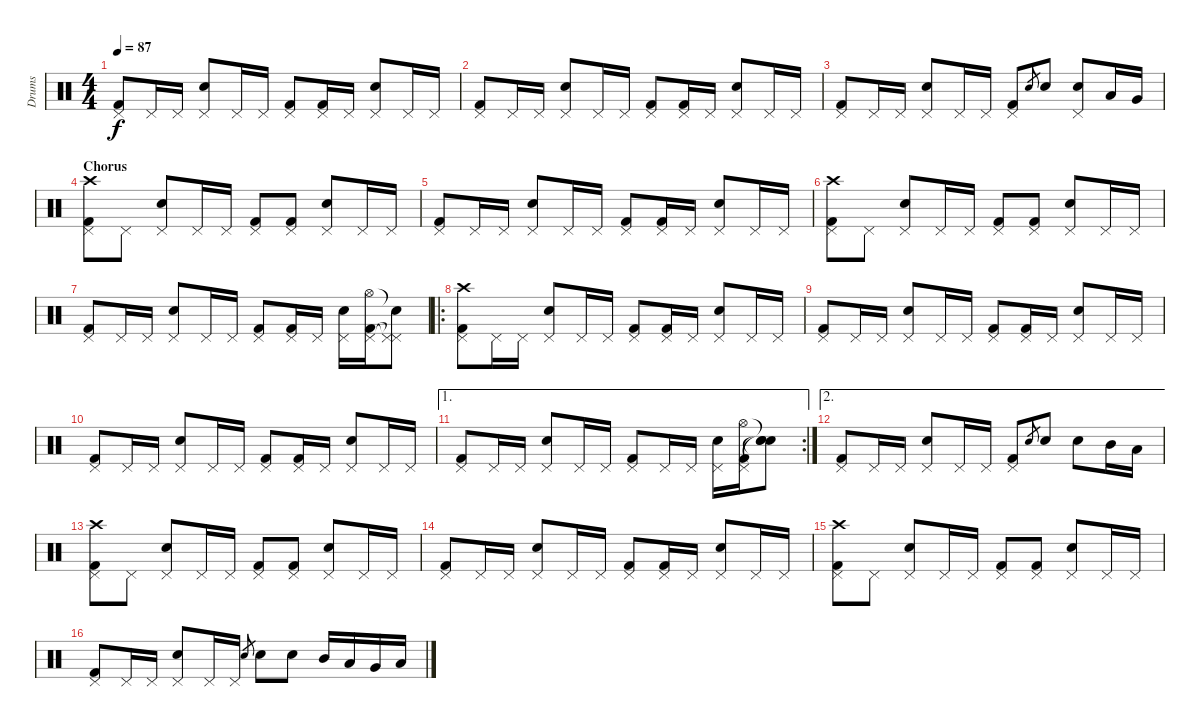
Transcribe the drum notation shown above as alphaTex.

\track ("Drums" "Drums") {instrument percussion}
\staff {score}
\articulation defaults
\ts (4 4)
\tempo 87
\clef neutral
\ks c
("Kick (hit) 2" "Pedal Hi-Hat (hit)").8{dy f} "Pedal Hi-Hat (hit)".16 "Pedal Hi-Hat (hit)".16 ("Snare (hit) 2" "Pedal Hi-Hat (hit)").8 "Pedal Hi-Hat (hit)".16 "Pedal Hi-Hat (hit)".16 ("Kick (hit) 2" "Pedal Hi-Hat (hit)").8 ("Kick (hit) 2" "Pedal Hi-Hat (hit)").16 "Pedal Hi-Hat (hit)".16 ("Snare (hit) 2" "Pedal Hi-Hat (hit)").8 "Pedal Hi-Hat (hit)".16 "Pedal Hi-Hat (hit)".16 |
("Kick (hit) 2" "Pedal Hi-Hat (hit)").8 "Pedal Hi-Hat (hit)".16 "Pedal Hi-Hat (hit)".16 ("Snare (hit) 2" "Pedal Hi-Hat (hit)").8 "Pedal Hi-Hat (hit)".16 "Pedal Hi-Hat (hit)".16 ("Kick (hit) 2" "Pedal Hi-Hat (hit)").8 ("Kick (hit) 2" "Pedal Hi-Hat (hit)").16 "Pedal Hi-Hat (hit)".16 ("Snare (hit) 2" "Pedal Hi-Hat (hit)").8 "Pedal Hi-Hat (hit)".16 "Pedal Hi-Hat (hit)".16 |
("Kick (hit) 2" "Pedal Hi-Hat (hit)").8 "Pedal Hi-Hat (hit)".16 "Pedal Hi-Hat (hit)".16 ("Snare (hit) 2" "Pedal Hi-Hat (hit)").8 "Pedal Hi-Hat (hit)".16 "Pedal Hi-Hat (hit)".16 ("Kick (hit) 2" "Pedal Hi-Hat (hit)").8 "Snare (hit) 2".8{gr} "Snare (hit) 2".8 ("Snare (hit) 2" "Pedal Hi-Hat (hit)").8 "Low Tom (hit)".16 "Very Low Tom (hit)".16 |
\section ("" "Chorus")
("Kick (hit) 2" "Pedal Hi-Hat (hit)" "Crash high (hit)").8 "Pedal Hi-Hat (hit)".8 ("Snare (hit) 2" "Pedal Hi-Hat (hit)").8 "Pedal Hi-Hat (hit)".16 "Pedal Hi-Hat (hit)".16 ("Kick (hit) 2" "Pedal Hi-Hat (hit)").8 ("Kick (hit) 2" "Pedal Hi-Hat (hit)").8 ("Snare (hit) 2" "Pedal Hi-Hat (hit)").8 "Pedal Hi-Hat (hit)".16 "Pedal Hi-Hat (hit)".16 |
("Kick (hit) 2" "Pedal Hi-Hat (hit)").8 "Pedal Hi-Hat (hit)".16 "Pedal Hi-Hat (hit)".16 ("Snare (hit) 2" "Pedal Hi-Hat (hit)").8 "Pedal Hi-Hat (hit)".16 "Pedal Hi-Hat (hit)".16 ("Kick (hit) 2" "Pedal Hi-Hat (hit)").8 ("Kick (hit) 2" "Pedal Hi-Hat (hit)").16 "Pedal Hi-Hat (hit)".16 ("Snare (hit) 2" "Pedal Hi-Hat (hit)").8 "Pedal Hi-Hat (hit)".16 "Pedal Hi-Hat (hit)".16 |
("Kick (hit) 2" "Pedal Hi-Hat (hit)" "Crash high (hit)").8 "Pedal Hi-Hat (hit)".8 ("Snare (hit) 2" "Pedal Hi-Hat (hit)").8 "Pedal Hi-Hat (hit)".16 "Pedal Hi-Hat (hit)".16 ("Kick (hit) 2" "Pedal Hi-Hat (hit)").8 ("Kick (hit) 2" "Pedal Hi-Hat (hit)").8 ("Snare (hit) 2" "Pedal Hi-Hat (hit)").8 "Pedal Hi-Hat (hit)".16 "Pedal Hi-Hat (hit)".16 |
("Kick (hit) 2" "Pedal Hi-Hat (hit)").8 "Pedal Hi-Hat (hit)".16 "Pedal Hi-Hat (hit)".16 ("Snare (hit) 2" "Pedal Hi-Hat (hit)").8 "Pedal Hi-Hat (hit)".16 "Pedal Hi-Hat (hit)".16 ("Kick (hit) 2" "Pedal Hi-Hat (hit)").8 ("Kick (hit) 2" "Pedal Hi-Hat (hit)").16 "Pedal Hi-Hat (hit)".16 ("Snare (hit) 2" "Pedal Hi-Hat (hit)").16 ("Kick (hit) 2" "Pedal Hi-Hat (hit)" "Hi-Hat (open)").16 ("Pedal Hi-Hat (hit)"{t} "Pedal Hi-Hat (hit)"{t} "Snare (hit)"{t}).8 |
\ro
("Kick (hit) 2" "Pedal Hi-Hat (hit)" "Crash high (hit)").8 "Pedal Hi-Hat (hit)".16 "Pedal Hi-Hat (hit)".16 ("Snare (hit) 2" "Pedal Hi-Hat (hit)").8 "Pedal Hi-Hat (hit)".16 "Pedal Hi-Hat (hit)".16 ("Kick (hit) 2" "Pedal Hi-Hat (hit)").8 ("Kick (hit) 2" "Pedal Hi-Hat (hit)").16 "Pedal Hi-Hat (hit)".16 ("Snare (hit) 2" "Pedal Hi-Hat (hit)").8 "Pedal Hi-Hat (hit)".16 "Pedal Hi-Hat (hit)".16 |
("Kick (hit) 2" "Pedal Hi-Hat (hit)").8 "Pedal Hi-Hat (hit)".16 "Pedal Hi-Hat (hit)".16 ("Snare (hit) 2" "Pedal Hi-Hat (hit)").8 "Pedal Hi-Hat (hit)".16 "Pedal Hi-Hat (hit)".16 ("Kick (hit) 2" "Pedal Hi-Hat (hit)").8 ("Kick (hit) 2" "Pedal Hi-Hat (hit)").16 "Pedal Hi-Hat (hit)".16 ("Snare (hit) 2" "Pedal Hi-Hat (hit)").8 "Pedal Hi-Hat (hit)".16 "Pedal Hi-Hat (hit)".16 |
("Kick (hit) 2" "Pedal Hi-Hat (hit)").8 "Pedal Hi-Hat (hit)".16 "Pedal Hi-Hat (hit)".16 ("Snare (hit) 2" "Pedal Hi-Hat (hit)").8 "Pedal Hi-Hat (hit)".16 "Pedal Hi-Hat (hit)".16 ("Kick (hit) 2" "Pedal Hi-Hat (hit)").8 ("Kick (hit) 2" "Pedal Hi-Hat (hit)").16 "Pedal Hi-Hat (hit)".16 ("Snare (hit) 2" "Pedal Hi-Hat (hit)").8 "Pedal Hi-Hat (hit)".16 "Pedal Hi-Hat (hit)".16 |
\ae 1
\rc 2
("Kick (hit) 2" "Pedal Hi-Hat (hit)").8 "Pedal Hi-Hat (hit)".16 "Pedal Hi-Hat (hit)".16 ("Snare (hit) 2" "Pedal Hi-Hat (hit)").8 "Pedal Hi-Hat (hit)".16 "Pedal Hi-Hat (hit)".16 ("Kick (hit) 2" "Pedal Hi-Hat (hit)").8 "Pedal Hi-Hat (hit)".16 "Pedal Hi-Hat (hit)".16 ("Snare (hit) 2" "Pedal Hi-Hat (hit)").16 ("Kick (hit) 2" "Pedal Hi-Hat (hit)" "Hi-Hat (open)").16 ("Snare (hit)"{t} "Snare (hit)"{t} "Snare (hit)"{t}).8 |
\ae 2
("Kick (hit) 2" "Pedal Hi-Hat (hit)").8 "Pedal Hi-Hat (hit)".16 "Pedal Hi-Hat (hit)".16 ("Snare (hit) 2" "Pedal Hi-Hat (hit)").8 "Pedal Hi-Hat (hit)".16 "Pedal Hi-Hat (hit)".16 ("Kick (hit) 2" "Pedal Hi-Hat (hit)").8 "Snare (hit) 2".8{gr} "Snare (hit) 2".8 "Snare (hit) 2".8 "Mid Tom (hit)".16 "Low Tom (hit)".16 |
("Kick (hit) 2" "Pedal Hi-Hat (hit)" "Crash high (hit)").8 "Pedal Hi-Hat (hit)".8 ("Snare (hit) 2" "Pedal Hi-Hat (hit)").8 "Pedal Hi-Hat (hit)".16 "Pedal Hi-Hat (hit)".16 ("Kick (hit) 2" "Pedal Hi-Hat (hit)").8 ("Kick (hit) 2" "Pedal Hi-Hat (hit)").8 ("Snare (hit) 2" "Pedal Hi-Hat (hit)").8 "Pedal Hi-Hat (hit)".16 "Pedal Hi-Hat (hit)".16 |
("Kick (hit) 2" "Pedal Hi-Hat (hit)").8 "Pedal Hi-Hat (hit)".16 "Pedal Hi-Hat (hit)".16 ("Snare (hit) 2" "Pedal Hi-Hat (hit)").8 "Pedal Hi-Hat (hit)".16 "Pedal Hi-Hat (hit)".16 ("Kick (hit) 2" "Pedal Hi-Hat (hit)").8 ("Kick (hit) 2" "Pedal Hi-Hat (hit)").16 "Pedal Hi-Hat (hit)".16 ("Snare (hit) 2" "Pedal Hi-Hat (hit)").8 "Pedal Hi-Hat (hit)".16 "Pedal Hi-Hat (hit)".16 |
("Kick (hit) 2" "Pedal Hi-Hat (hit)" "Crash high (hit)").8 "Pedal Hi-Hat (hit)".8 ("Snare (hit) 2" "Pedal Hi-Hat (hit)").8 "Pedal Hi-Hat (hit)".16 "Pedal Hi-Hat (hit)".16 ("Kick (hit) 2" "Pedal Hi-Hat (hit)").8 ("Kick (hit) 2" "Pedal Hi-Hat (hit)").8 ("Snare (hit) 2" "Pedal Hi-Hat (hit)").8 "Pedal Hi-Hat (hit)".16 "Pedal Hi-Hat (hit)".16 |
("Kick (hit) 2" "Pedal Hi-Hat (hit)").8 "Pedal Hi-Hat (hit)".16 "Pedal Hi-Hat (hit)".16 ("Snare (hit) 2" "Pedal Hi-Hat (hit)").8 "Pedal Hi-Hat (hit)".16 "Pedal Hi-Hat (hit)".16 "Snare (hit) 2".8{gr} "Snare (hit) 2".8 "Snare (hit) 2".8 "Mid Tom (hit)".16 "Low Tom (hit)".16 "Very Low Tom (hit)".16 "Low Floor Tom (hit)".16
